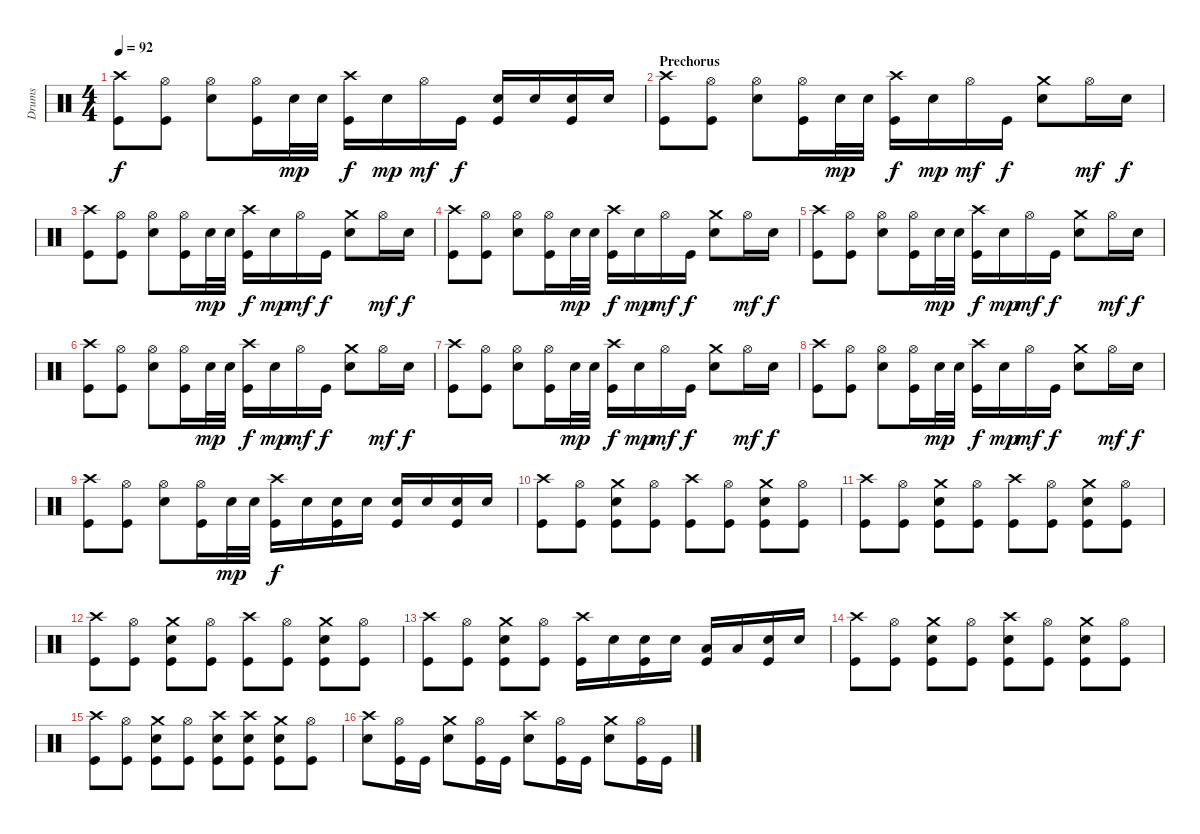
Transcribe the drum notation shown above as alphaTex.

\track ("Drums" "Drums") {instrument percussion}
\staff {score}
\articulation defaults
\ts (4 4)
\tempo 92
\clef neutral
\ks c
("Crash high (hit)" "Kick (hit)").8{dy f} ("Hi-Hat (open)" "Kick (hit)").8 ("Hi-Hat (open)" "Electric Snare (hit)").8 ("Hi-Hat (open)" "Kick (hit)").16 "Electric Snare (hit)".32{dy mp} "Electric Snare (hit)".32 ("Crash high (hit)" "Kick (hit)").16{dy f} "Electric Snare (hit)".16{dy mp} "Hi-Hat (open)".16{dy mf} "Kick (hit)".16{dy f} ("Electric Snare (hit)" "Kick (hit)").16 "Electric Snare (hit)".16 ("Electric Snare (hit)" "Kick (hit)").16 "Electric Snare (hit)".16 |
\section ("" "Prechorus")
("Crash high (hit)" "Kick (hit)").8 ("Hi-Hat (open)" "Kick (hit)").8 ("Hi-Hat (open)" "Electric Snare (hit)").8 ("Hi-Hat (open)" "Kick (hit)").16 "Electric Snare (hit)".32{dy mp} "Electric Snare (hit)".32 ("Crash high (hit)" "Kick (hit)").16{dy f} "Electric Snare (hit)".16{dy mp} "Hi-Hat (open)".16{dy mf} "Kick (hit)".16{dy f} ("Crash medium (hit)" "Electric Snare (hit)").8 "Hi-Hat (open)".16{dy mf} "Electric Snare (hit)".16{dy f} |
("Crash high (hit)" "Kick (hit)").8 ("Hi-Hat (open)" "Kick (hit)").8 ("Hi-Hat (open)" "Electric Snare (hit)").8 ("Hi-Hat (open)" "Kick (hit)").16 "Electric Snare (hit)".32{dy mp} "Electric Snare (hit)".32 ("Crash high (hit)" "Kick (hit)").16{dy f} "Electric Snare (hit)".16{dy mp} "Hi-Hat (open)".16{dy mf} "Kick (hit)".16{dy f} ("Crash medium (hit)" "Electric Snare (hit)").8 "Hi-Hat (open)".16{dy mf} "Electric Snare (hit)".16{dy f} |
("Crash high (hit)" "Kick (hit)").8 ("Hi-Hat (open)" "Kick (hit)").8 ("Hi-Hat (open)" "Electric Snare (hit)").8 ("Hi-Hat (open)" "Kick (hit)").16 "Electric Snare (hit)".32{dy mp} "Electric Snare (hit)".32 ("Crash high (hit)" "Kick (hit)").16{dy f} "Electric Snare (hit)".16{dy mp} "Hi-Hat (open)".16{dy mf} "Kick (hit)".16{dy f} ("Crash medium (hit)" "Electric Snare (hit)").8 "Hi-Hat (open)".16{dy mf} "Electric Snare (hit)".16{dy f} |
("Crash high (hit)" "Kick (hit)").8 ("Hi-Hat (open)" "Kick (hit)").8 ("Hi-Hat (open)" "Electric Snare (hit)").8 ("Hi-Hat (open)" "Kick (hit)").16 "Electric Snare (hit)".32{dy mp} "Electric Snare (hit)".32 ("Crash high (hit)" "Kick (hit)").16{dy f} "Electric Snare (hit)".16{dy mp} "Hi-Hat (open)".16{dy mf} "Kick (hit)".16{dy f} ("Crash medium (hit)" "Electric Snare (hit)").8 "Hi-Hat (open)".16{dy mf} "Electric Snare (hit)".16{dy f} |
("Crash high (hit)" "Kick (hit)").8 ("Hi-Hat (open)" "Kick (hit)").8 ("Hi-Hat (open)" "Electric Snare (hit)").8 ("Hi-Hat (open)" "Kick (hit)").16 "Electric Snare (hit)".32{dy mp} "Electric Snare (hit)".32 ("Crash high (hit)" "Kick (hit)").16{dy f} "Electric Snare (hit)".16{dy mp} "Hi-Hat (open)".16{dy mf} "Kick (hit)".16{dy f} ("Crash medium (hit)" "Electric Snare (hit)").8 "Hi-Hat (open)".16{dy mf} "Electric Snare (hit)".16{dy f} |
("Crash high (hit)" "Kick (hit)").8 ("Hi-Hat (open)" "Kick (hit)").8 ("Hi-Hat (open)" "Electric Snare (hit)").8 ("Hi-Hat (open)" "Kick (hit)").16 "Electric Snare (hit)".32{dy mp} "Electric Snare (hit)".32 ("Crash high (hit)" "Kick (hit)").16{dy f} "Electric Snare (hit)".16{dy mp} "Hi-Hat (open)".16{dy mf} "Kick (hit)".16{dy f} ("Crash medium (hit)" "Electric Snare (hit)").8 "Hi-Hat (open)".16{dy mf} "Electric Snare (hit)".16{dy f} |
("Crash high (hit)" "Kick (hit)").8 ("Hi-Hat (open)" "Kick (hit)").8 ("Hi-Hat (open)" "Electric Snare (hit)").8 ("Hi-Hat (open)" "Kick (hit)").16 "Electric Snare (hit)".32{dy mp} "Electric Snare (hit)".32 ("Crash high (hit)" "Kick (hit)").16{dy f} "Electric Snare (hit)".16{dy mp} "Hi-Hat (open)".16{dy mf} "Kick (hit)".16{dy f} ("Crash medium (hit)" "Electric Snare (hit)").8 "Hi-Hat (open)".16{dy mf} "Electric Snare (hit)".16{dy f} |
("Crash high (hit)" "Kick (hit)").8 ("Hi-Hat (open)" "Kick (hit)").8 ("Hi-Hat (open)" "Electric Snare (hit)").8 ("Hi-Hat (open)" "Kick (hit)").16 "Electric Snare (hit)".32{dy mp} "Electric Snare (hit)".32 ("Crash high (hit)" "Kick (hit)").16{dy f} "Electric Snare (hit)".16 ("Electric Snare (hit)" "Kick (hit)").16 "Electric Snare (hit)".16 ("Electric Snare (hit)" "Kick (hit)").16 "Electric Snare (hit)".16 ("Electric Snare (hit)" "Kick (hit)").16 "Electric Snare (hit)".16 |
("Crash high (hit)" "Kick (hit)").8 ("Hi-Hat (open)" "Kick (hit)").8 ("Crash medium (hit)" "Electric Snare (hit)" "Kick (hit)").8 ("Hi-Hat (open)" "Kick (hit)").8 ("Crash high (hit)" "Kick (hit)").8 ("Hi-Hat (open)" "Kick (hit)").8 ("Crash medium (hit)" "Electric Snare (hit)" "Kick (hit)").8 ("Hi-Hat (open)" "Kick (hit)").8 |
("Crash high (hit)" "Kick (hit)").8 ("Hi-Hat (open)" "Kick (hit)").8 ("Crash medium (hit)" "Electric Snare (hit)" "Kick (hit)").8 ("Hi-Hat (open)" "Kick (hit)").8 ("Crash high (hit)" "Kick (hit)").8 ("Hi-Hat (open)" "Kick (hit)").8 ("Crash medium (hit)" "Electric Snare (hit)" "Kick (hit)").8 ("Hi-Hat (open)" "Kick (hit)").8 |
("Crash high (hit)" "Kick (hit)").8 ("Hi-Hat (open)" "Kick (hit)").8 ("Crash medium (hit)" "Electric Snare (hit)" "Kick (hit)").8 ("Hi-Hat (open)" "Kick (hit)").8 ("Crash high (hit)" "Kick (hit)").8 ("Hi-Hat (open)" "Kick (hit)").8 ("Crash medium (hit)" "Electric Snare (hit)" "Kick (hit)").8 ("Hi-Hat (open)" "Kick (hit)").8 |
("Crash high (hit)" "Kick (hit)").8 ("Hi-Hat (open)" "Kick (hit)").8 ("Crash medium (hit)" "Electric Snare (hit)" "Kick (hit)").8 ("Hi-Hat (open)" "Kick (hit)").8 ("Crash high (hit)" "Kick (hit)").16 "Electric Snare (hit)".16 ("Electric Snare (hit)" "Kick (hit)").16 "Electric Snare (hit)".16 ("Low Tom (hit)" "Kick (hit)").16 "Low Tom (hit)".16 ("Electric Snare (hit)" "Kick (hit)").16 "Electric Snare (hit)".16 |
("Crash high (hit)" "Kick (hit)").8 ("Hi-Hat (open)" "Kick (hit)").8 ("Crash medium (hit)" "Electric Snare (hit)" "Kick (hit)").8 ("Hi-Hat (open)" "Kick (hit)").8 ("Crash high (hit)" "Electric Snare (hit)" "Kick (hit)").8 ("Hi-Hat (open)" "Kick (hit)").8 ("Crash medium (hit)" "Electric Snare (hit)" "Kick (hit)").8 ("Hi-Hat (open)" "Kick (hit)").8 |
("Crash high (hit)" "Kick (hit)").8 ("Hi-Hat (open)" "Kick (hit)").8 ("Crash medium (hit)" "Electric Snare (hit)" "Kick (hit)").8 ("Hi-Hat (open)" "Kick (hit)").8 ("Crash high (hit)" "Electric Snare (hit)" "Kick (hit)").8 ("Crash high (hit)" "Electric Snare (hit)" "Kick (hit)").8 ("Crash medium (hit)" "Electric Snare (hit)" "Kick (hit)").8 ("Hi-Hat (open)" "Kick (hit)").8 |
("Crash high (hit)" "Electric Snare (hit)").8 ("Hi-Hat (open)" "Kick (hit)").16 "Kick (hit)".16 ("Crash medium (hit)" "Electric Snare (hit)").8 ("Hi-Hat (open)" "Kick (hit)").16 "Kick (hit)".16 ("Crash high (hit)" "Electric Snare (hit)").8 ("Hi-Hat (open)" "Kick (hit)").16 "Kick (hit)".16 ("Crash medium (hit)" "Electric Snare (hit)").8 ("Hi-Hat (open)" "Kick (hit)").16 "Kick (hit)".16
